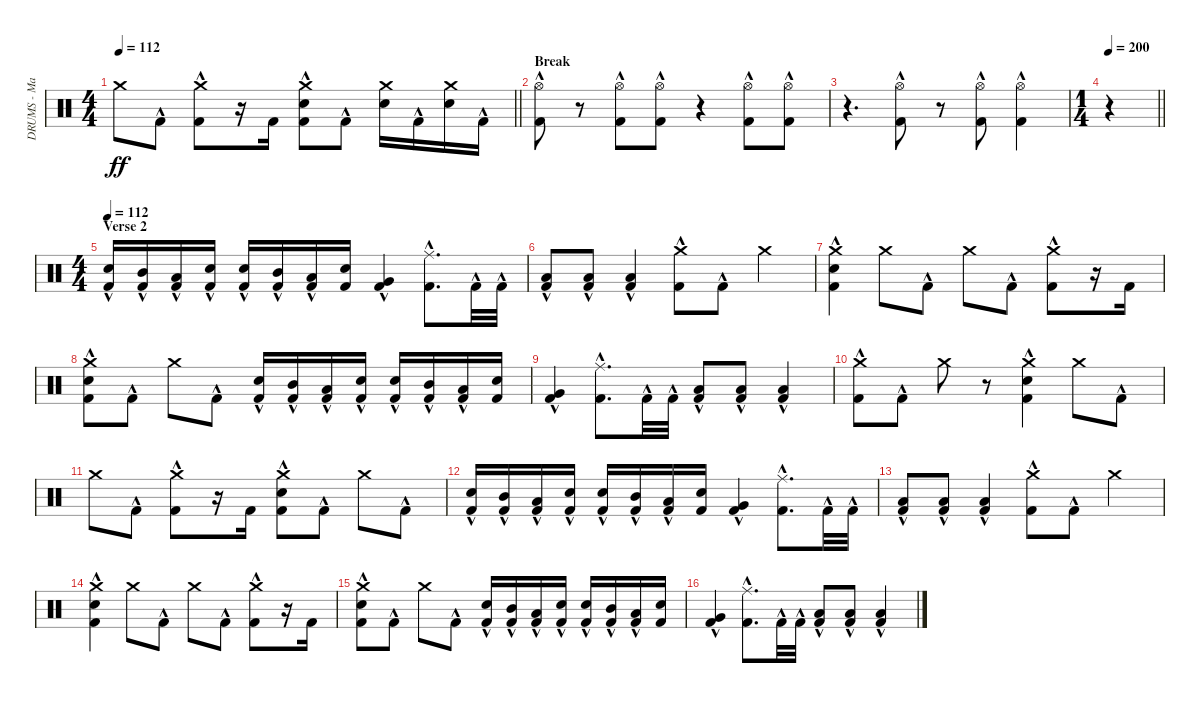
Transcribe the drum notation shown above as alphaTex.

\track ("DRUMS - Mario Duplantier" "DRUMS - Ma") {instrument percussion}
\staff {score}
\articulation defaults
\ts (4 4)
\tempo 112
\clef neutral
\barLineRight lightlight
\ks c "Crash medium (hit)".8{dy ff} "Kick (hit) 2"{hac}.8
("Crash medium (hit)" "Kick (hit) 2"{hac}).8 r.16 "Kick (hit) 2".16 ("Crash medium (hit)" "Electric Snare (hit)" "Kick (hit) 2"{hac}).8 "Kick (hit) 2"{hac}.8 ("Crash medium (hit)" "Electric Snare (hit)").16 "Kick (hit) 2"{hac}.16 ("Crash medium (hit)" "Electric Snare (hit)").16 "Kick (hit) 2"{hac}.16 |
\section ("" "Break")
("Hi-Hat (open)" "Kick (hit) 2"{hac}).8 r.8 ("Hi-Hat (open)" "Kick (hit) 2"{hac}).8 ("Hi-Hat (open)" "Kick (hit) 2"{hac}).8 r.4 ("Hi-Hat (open)" "Kick (hit) 2"{hac}).8 ("Hi-Hat (open)" "Kick (hit) 2"{hac}).8 |
r.4{d} ("Hi-Hat (open)" "Kick (hit) 2"{hac}).8 r.8 ("Hi-Hat (open)" "Kick (hit) 2"{hac}).8 ("Hi-Hat (open)" "Kick (hit) 2"{hac}).4 |
\ts (1 4)
\tempo 200
\barLineRight lightlight
r.4 |
\ts (4 4)
\section ("" "Verse 2")
\tempo 112
("Electric Snare (hit)" "Kick (hit) 2"{hac}).16 ("Mid Tom (hit)" "Kick (hit) 2"{hac}).16 ("Low Tom (hit)" "Kick (hit) 2"{hac}).16 ("Electric Snare (hit)" "Kick (hit) 2"{hac}).16 ("Electric Snare (hit)" "Kick (hit) 2"{hac}).16 ("Mid Tom (hit)" "Kick (hit) 2"{hac}).16 ("Low Tom (hit)" "Kick (hit) 2"{hac}).16 ("Electric Snare (hit)" "Kick (hit) 2").16 ("Very Low Tom (hit)" "Kick (hit) 2"{hac}).4 ("Ride (middle)" "Kick (hit) 2"{hac}).8{d} "Kick (hit) 2"{hac}.32 "Kick (hit) 2"{hac}.32 |
("Low Tom (hit)" "Kick (hit) 2"{hac}).8 ("Low Tom (hit)" "Kick (hit) 2"{hac}).8 ("Low Tom (hit)" "Kick (hit) 2"{hac}).4 ("Crash medium (hit)" "Kick (hit) 2"{hac}).8 "Kick (hit) 2"{hac}.8 "Crash medium (hit)".4 |
("Crash medium (hit)" "Electric Snare (hit)" "Kick (hit) 2"{hac}).4 "Crash medium (hit)".8 "Kick (hit) 2"{hac}.8 "Crash medium (hit)".8 "Kick (hit) 2"{hac}.8 ("Crash medium (hit)" "Kick (hit) 2"{hac}).8 r.16 "Kick (hit) 2".16 |
("Crash medium (hit)" "Electric Snare (hit)" "Kick (hit) 2"{hac}).8 "Kick (hit) 2"{hac}.8 "Crash medium (hit)".8 "Kick (hit) 2"{hac}.8 ("Electric Snare (hit)" "Kick (hit) 2"{hac}).16 ("Mid Tom (hit)" "Kick (hit) 2"{hac}).16 ("Low Tom (hit)" "Kick (hit) 2"{hac}).16 ("Electric Snare (hit)" "Kick (hit) 2"{hac}).16 ("Electric Snare (hit)" "Kick (hit) 2"{hac}).16 ("Mid Tom (hit)" "Kick (hit) 2"{hac}).16 ("Low Tom (hit)" "Kick (hit) 2"{hac}).16 ("Electric Snare (hit)" "Kick (hit) 2").16 |
("Very Low Tom (hit)" "Kick (hit) 2"{hac}).4 ("Ride (middle)" "Kick (hit) 2"{hac}).8{d} "Kick (hit) 2"{hac}.32 "Kick (hit) 2"{hac}.32 ("Low Tom (hit)" "Kick (hit) 2"{hac}).8 ("Low Tom (hit)" "Kick (hit) 2"{hac}).8 ("Low Tom (hit)" "Kick (hit) 2"{hac}).4 |
("Crash medium (hit)" "Kick (hit) 2"{hac}).8 "Kick (hit) 2"{hac}.8 "Crash medium (hit)".8 r.8 ("Crash medium (hit)" "Electric Snare (hit)" "Kick (hit) 2"{hac}).4 "Crash medium (hit)".8 "Kick (hit) 2"{hac}.8 |
"Crash medium (hit)".8 "Kick (hit) 2"{hac}.8 ("Crash medium (hit)" "Kick (hit) 2"{hac}).8 r.16 "Kick (hit) 2".16 ("Crash medium (hit)" "Electric Snare (hit)" "Kick (hit) 2"{hac}).8 "Kick (hit) 2"{hac}.8 "Crash medium (hit)".8 "Kick (hit) 2"{hac}.8 |
("Electric Snare (hit)" "Kick (hit) 2"{hac}).16 ("Mid Tom (hit)" "Kick (hit) 2"{hac}).16 ("Low Tom (hit)" "Kick (hit) 2"{hac}).16 ("Electric Snare (hit)" "Kick (hit) 2"{hac}).16 ("Electric Snare (hit)" "Kick (hit) 2"{hac}).16 ("Mid Tom (hit)" "Kick (hit) 2"{hac}).16 ("Low Tom (hit)" "Kick (hit) 2"{hac}).16 ("Electric Snare (hit)" "Kick (hit) 2").16 ("Very Low Tom (hit)" "Kick (hit) 2"{hac}).4 ("Ride (middle)" "Kick (hit) 2"{hac}).8{d} "Kick (hit) 2"{hac}.32 "Kick (hit) 2"{hac}.32 |
("Low Tom (hit)" "Kick (hit) 2"{hac}).8 ("Low Tom (hit)" "Kick (hit) 2"{hac}).8 ("Low Tom (hit)" "Kick (hit) 2"{hac}).4 ("Crash medium (hit)" "Kick (hit) 2"{hac}).8 "Kick (hit) 2"{hac}.8 "Crash medium (hit)".4 |
("Crash medium (hit)" "Electric Snare (hit)" "Kick (hit) 2"{hac}).4 "Crash medium (hit)".8 "Kick (hit) 2"{hac}.8 "Crash medium (hit)".8 "Kick (hit) 2"{hac}.8 ("Crash medium (hit)" "Kick (hit) 2"{hac}).8 r.16 "Kick (hit) 2".16 |
("Crash medium (hit)" "Electric Snare (hit)" "Kick (hit) 2"{hac}).8 "Kick (hit) 2"{hac}.8 "Crash medium (hit)".8 "Kick (hit) 2"{hac}.8 ("Electric Snare (hit)" "Kick (hit) 2"{hac}).16 ("Mid Tom (hit)" "Kick (hit) 2"{hac}).16 ("Low Tom (hit)" "Kick (hit) 2"{hac}).16 ("Electric Snare (hit)" "Kick (hit) 2"{hac}).16 ("Electric Snare (hit)" "Kick (hit) 2"{hac}).16 ("Mid Tom (hit)" "Kick (hit) 2"{hac}).16 ("Low Tom (hit)" "Kick (hit) 2"{hac}).16 ("Electric Snare (hit)" "Kick (hit) 2").16 |
("Very Low Tom (hit)" "Kick (hit) 2"{hac}).4 ("Ride (middle)" "Kick (hit) 2"{hac}).8{d} "Kick (hit) 2"{hac}.32 "Kick (hit) 2"{hac}.32 ("Low Tom (hit)" "Kick (hit) 2"{hac}).8 ("Low Tom (hit)" "Kick (hit) 2"{hac}).8 ("Low Tom (hit)" "Kick (hit) 2"{hac}).4
